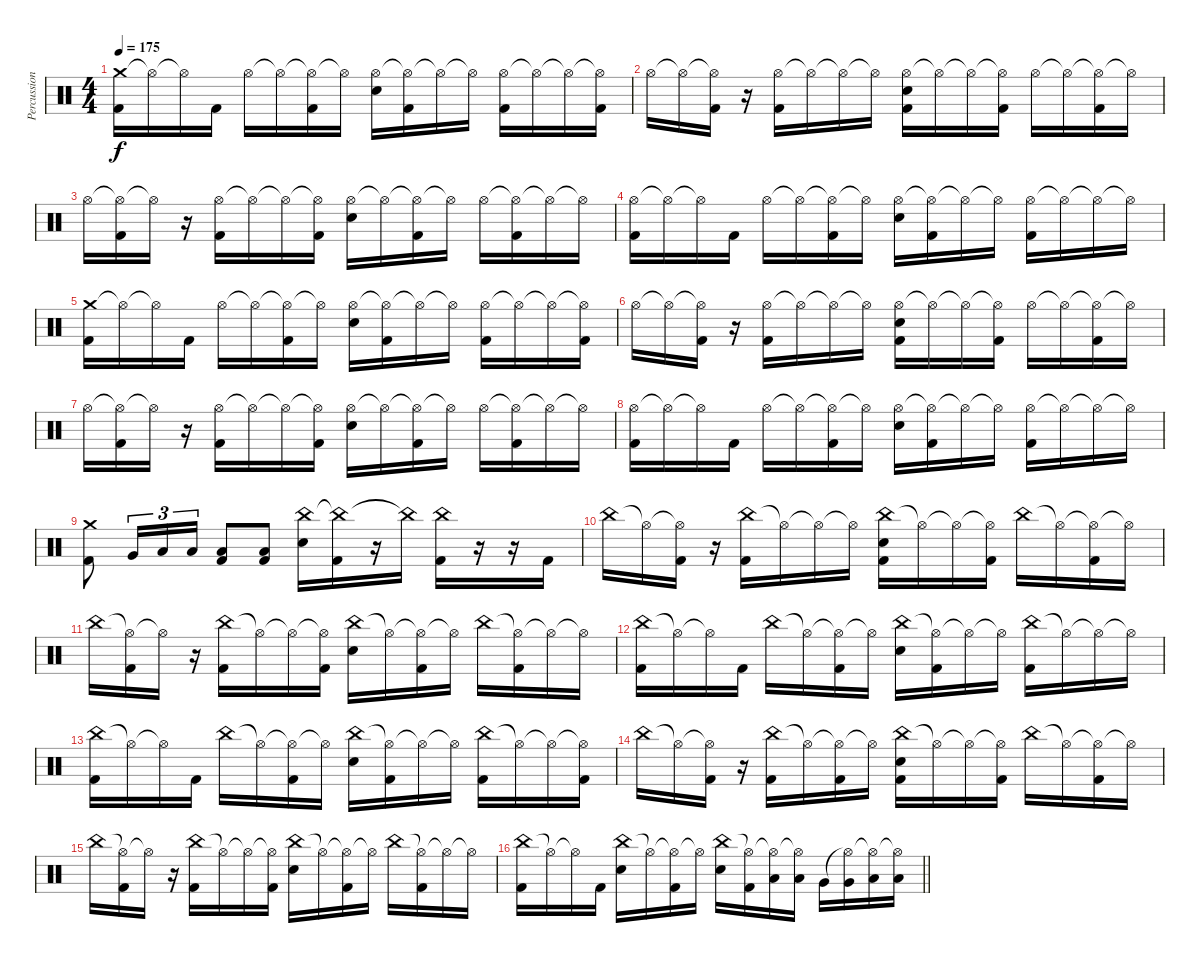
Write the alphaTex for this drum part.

\track ("Percussion" "Percussion") {instrument percussion}
\staff {score}
\articulation defaults
\ts (4 4)
\tempo 175
\clef neutral
\ks c
("Crash medium (hit)" "Kick (hit) 2").16{dy f} "Hi-Hat (open)"{t}.16 "Hi-Hat (open)"{t}.16 "Kick (hit) 2".16 "Hi-Hat (open)".16 "Hi-Hat (open)"{t}.16 ("Hi-Hat (open)"{t} "Kick (hit) 2").16 "Hi-Hat (open)"{t}.16 ("Hi-Hat (open)" "Electric Snare (hit)").16 ("Hi-Hat (open)"{t} "Kick (hit) 2").16 "Hi-Hat (open)"{t}.16 "Hi-Hat (open)"{t}.16 ("Hi-Hat (open)" "Kick (hit) 2").16 "Hi-Hat (open)"{t}.16 "Hi-Hat (open)"{t}.16 ("Hi-Hat (open)"{t} "Kick (hit) 2").16 |
"Hi-Hat (open)".16 "Hi-Hat (open)"{t}.16 ("Hi-Hat (open)"{t} "Kick (hit) 2").16 r.16 ("Hi-Hat (open)" "Kick (hit) 2").16 "Hi-Hat (open)"{t}.16 "Hi-Hat (open)"{t}.16 "Hi-Hat (open)"{t}.16 ("Hi-Hat (open)" "Electric Snare (hit)" "Kick (hit) 2").16 "Hi-Hat (open)"{t}.16 "Hi-Hat (open)"{t}.16 ("Hi-Hat (open)"{t} "Kick (hit) 2").16 "Hi-Hat (open)".16 "Hi-Hat (open)"{t}.16 ("Hi-Hat (open)"{t} "Kick (hit) 2").16 "Hi-Hat (open)"{t}.16 |
"Hi-Hat (open)".16 ("Hi-Hat (open)"{t} "Kick (hit) 2").16 "Hi-Hat (open)"{t}.16 r.16 ("Hi-Hat (open)" "Kick (hit) 2").16 "Hi-Hat (open)"{t}.16 "Hi-Hat (open)"{t}.16 ("Hi-Hat (open)"{t} "Kick (hit) 2").16 ("Hi-Hat (open)" "Electric Snare (hit)").16 "Hi-Hat (open)"{t}.16 ("Hi-Hat (open)"{t} "Kick (hit) 2").16 "Hi-Hat (open)"{t}.16 "Hi-Hat (open)".16 ("Hi-Hat (open)"{t} "Kick (hit) 2").16 "Hi-Hat (open)"{t}.16 "Hi-Hat (open)"{t}.16 |
("Hi-Hat (open)" "Kick (hit) 2").16 "Hi-Hat (open)"{t}.16 "Hi-Hat (open)"{t}.16 "Kick (hit) 2".16 "Hi-Hat (open)".16 "Hi-Hat (open)"{t}.16 ("Hi-Hat (open)"{t} "Kick (hit) 2").16 "Hi-Hat (open)"{t}.16 ("Hi-Hat (open)" "Electric Snare (hit)").16 ("Hi-Hat (open)"{t} "Kick (hit) 2").16 "Hi-Hat (open)"{t}.16 "Hi-Hat (open)"{t}.16 ("Hi-Hat (open)" "Kick (hit) 2").16 "Hi-Hat (open)"{t}.16 "Hi-Hat (open)"{t}.16 "Hi-Hat (open)"{t}.16 |
("Crash medium (hit)" "Kick (hit) 2").16 "Hi-Hat (open)"{t}.16 "Hi-Hat (open)"{t}.16 "Kick (hit) 2".16 "Hi-Hat (open)".16 "Hi-Hat (open)"{t}.16 ("Hi-Hat (open)"{t} "Kick (hit) 2").16 "Hi-Hat (open)"{t}.16 ("Hi-Hat (open)" "Electric Snare (hit)").16 ("Hi-Hat (open)"{t} "Kick (hit) 2").16 "Hi-Hat (open)"{t}.16 "Hi-Hat (open)"{t}.16 ("Hi-Hat (open)" "Kick (hit) 2").16 "Hi-Hat (open)"{t}.16 "Hi-Hat (open)"{t}.16 ("Hi-Hat (open)"{t} "Kick (hit) 2").16 |
"Hi-Hat (open)".16 "Hi-Hat (open)"{t}.16 ("Hi-Hat (open)"{t} "Kick (hit) 2").16 r.16 ("Hi-Hat (open)" "Kick (hit) 2").16 "Hi-Hat (open)"{t}.16 "Hi-Hat (open)"{t}.16 "Hi-Hat (open)"{t}.16 ("Hi-Hat (open)" "Electric Snare (hit)" "Kick (hit) 2").16 "Hi-Hat (open)"{t}.16 "Hi-Hat (open)"{t}.16 ("Hi-Hat (open)"{t} "Kick (hit) 2").16 "Hi-Hat (open)".16 "Hi-Hat (open)"{t}.16 ("Hi-Hat (open)"{t} "Kick (hit) 2").16 "Hi-Hat (open)"{t}.16 |
"Hi-Hat (open)".16 ("Hi-Hat (open)"{t} "Kick (hit) 2").16 "Hi-Hat (open)"{t}.16 r.16 ("Hi-Hat (open)" "Kick (hit) 2").16 "Hi-Hat (open)"{t}.16 "Hi-Hat (open)"{t}.16 ("Hi-Hat (open)"{t} "Kick (hit) 2").16 ("Hi-Hat (open)" "Electric Snare (hit)").16 "Hi-Hat (open)"{t}.16 ("Hi-Hat (open)"{t} "Kick (hit) 2").16 "Hi-Hat (open)"{t}.16 "Hi-Hat (open)".16 ("Hi-Hat (open)"{t} "Kick (hit) 2").16 "Hi-Hat (open)"{t}.16 "Hi-Hat (open)"{t}.16 |
("Hi-Hat (open)" "Kick (hit) 2").16 "Hi-Hat (open)"{t}.16 "Hi-Hat (open)"{t}.16 "Kick (hit) 2".16 "Hi-Hat (open)".16 "Hi-Hat (open)"{t}.16 ("Hi-Hat (open)"{t} "Kick (hit) 2").16 "Hi-Hat (open)"{t}.16 ("Hi-Hat (open)" "Electric Snare (hit)").16 ("Hi-Hat (open)"{t} "Kick (hit) 2").16 "Hi-Hat (open)"{t}.16 "Hi-Hat (open)"{t}.16 ("Hi-Hat (open)" "Kick (hit) 2").16 "Hi-Hat (open)"{t}.16 "Hi-Hat (open)"{t}.16 "Hi-Hat (open)"{t}.16 |
("Crash medium (hit)" "Kick (hit) 2").8 "Very Low Tom (hit)".16{tu (3 2)} "Low Floor Tom (hit)".16{tu (3 2)} "Low Floor Tom (hit)".16{tu (3 2)} ("Low Floor Tom (hit)" "Kick (hit) 2").8 ("Low Floor Tom (hit)" "Kick (hit) 2").8 ("China (hit)" "Electric Snare (hit)").16 ("China (hit)"{t} "Kick (hit) 2").16 r.16 "China (hit)"{t}.16 ("China (hit)" "Kick (hit) 2").16 r.16 r.16 "Kick (hit) 2".16 |
"China (hit)".16 "Hi-Hat (open)"{t}.16 ("Hi-Hat (open)"{t} "Kick (hit) 2").16 r.16 ("China (hit)" "Kick (hit) 2").16 "Hi-Hat (open)"{t}.16 "Hi-Hat (open)"{t}.16 "Hi-Hat (open)"{t}.16 ("China (hit)" "Electric Snare (hit)" "Kick (hit) 2").16 "Hi-Hat (open)"{t}.16 "Hi-Hat (open)"{t}.16 ("Hi-Hat (open)"{t} "Kick (hit) 2").16 "China (hit)".16 "Hi-Hat (open)"{t}.16 ("Hi-Hat (open)"{t} "Kick (hit) 2").16 "Hi-Hat (open)"{t}.16 |
"China (hit)".16 ("Hi-Hat (open)"{t} "Kick (hit) 2").16 "Hi-Hat (open)"{t}.16 r.16 ("China (hit)" "Kick (hit) 2").16 "Hi-Hat (open)"{t}.16 "Hi-Hat (open)"{t}.16 ("Hi-Hat (open)"{t} "Kick (hit) 2").16 ("China (hit)" "Electric Snare (hit)").16 "Hi-Hat (open)"{t}.16 ("Hi-Hat (open)"{t} "Kick (hit) 2").16 "Hi-Hat (open)"{t}.16 "China (hit)".16 ("Hi-Hat (open)"{t} "Kick (hit) 2").16 "Hi-Hat (open)"{t}.16 "Hi-Hat (open)"{t}.16 |
("China (hit)" "Kick (hit) 2").16 "Hi-Hat (open)"{t}.16 "Hi-Hat (open)"{t}.16 "Kick (hit) 2".16 "China (hit)".16 "Hi-Hat (open)"{t}.16 ("Hi-Hat (open)"{t} "Kick (hit) 2").16 "Hi-Hat (open)"{t}.16 ("China (hit)" "Electric Snare (hit)").16 ("Hi-Hat (open)"{t} "Kick (hit) 2").16 "Hi-Hat (open)"{t}.16 "Hi-Hat (open)"{t}.16 ("China (hit)" "Kick (hit) 2").16 "Hi-Hat (open)"{t}.16 "Hi-Hat (open)"{t}.16 "Hi-Hat (open)"{t}.16 |
("China (hit)" "Kick (hit) 2").16 "Hi-Hat (open)"{t}.16 "Hi-Hat (open)"{t}.16 "Kick (hit) 2".16 "China (hit)".16 "Hi-Hat (open)"{t}.16 ("Hi-Hat (open)"{t} "Kick (hit) 2").16 "Hi-Hat (open)"{t}.16 ("China (hit)" "Electric Snare (hit)").16 ("Hi-Hat (open)"{t} "Kick (hit) 2").16 "Hi-Hat (open)"{t}.16 "Hi-Hat (open)"{t}.16 ("China (hit)" "Kick (hit) 2").16 "Hi-Hat (open)"{t}.16 "Hi-Hat (open)"{t}.16 ("Hi-Hat (open)"{t} "Kick (hit) 2").16 |
"China (hit)".16 "Hi-Hat (open)"{t}.16 ("Hi-Hat (open)"{t} "Kick (hit) 2").16 r.16 ("China (hit)" "Kick (hit) 2").16 "Hi-Hat (open)"{t}.16 ("Hi-Hat (open)"{t} "Kick (hit) 2").16 "Hi-Hat (open)"{t}.16 ("China (hit)" "Electric Snare (hit)" "Kick (hit) 2").16 "Hi-Hat (open)"{t}.16 "Hi-Hat (open)"{t}.16 ("Hi-Hat (open)"{t} "Kick (hit) 2").16 "China (hit)".16 "Hi-Hat (open)"{t}.16 ("Hi-Hat (open)"{t} "Kick (hit) 2").16 "Hi-Hat (open)"{t}.16 |
"China (hit)".16 ("Hi-Hat (open)"{t} "Kick (hit) 2").16 "Hi-Hat (open)"{t}.16 r.16 ("China (hit)" "Kick (hit) 2").16 "Hi-Hat (open)"{t}.16 "Hi-Hat (open)"{t}.16 ("Hi-Hat (open)"{t} "Kick (hit) 2").16 ("China (hit)" "Electric Snare (hit)").16 "Hi-Hat (open)"{t}.16 ("Hi-Hat (open)"{t} "Kick (hit) 2").16 "Hi-Hat (open)"{t}.16 "China (hit)".16 ("Hi-Hat (open)"{t} "Kick (hit) 2").16 "Hi-Hat (open)"{t}.16 "Hi-Hat (open)"{t}.16 |
\barLineRight lightlight
("China (hit)" "Kick (hit) 2").16 "Hi-Hat (open)"{t}.16 "Hi-Hat (open)"{t}.16 "Kick (hit) 2".16 ("China (hit)" "Electric Snare (hit)").16 "Hi-Hat (open)"{t}.16 ("Hi-Hat (open)"{t} "Kick (hit) 2").16 "Hi-Hat (open)"{t}.16 ("China (hit)" "Electric Snare (hit)").16 ("Hi-Hat (open)"{t} "Kick (hit) 2").16 ("Hi-Hat (open)"{t} "Low Tom (hit)").16 ("Hi-Hat (open)"{t} "Low Tom (hit)").16 "Very Low Tom (hit)".16 ("Hi-Hat (open)"{t} "Very Low Tom (hit)").16 ("Hi-Hat (open)"{t} "Low Floor Tom (hit)").16 ("Hi-Hat (open)"{t} "Low Floor Tom (hit)").16
